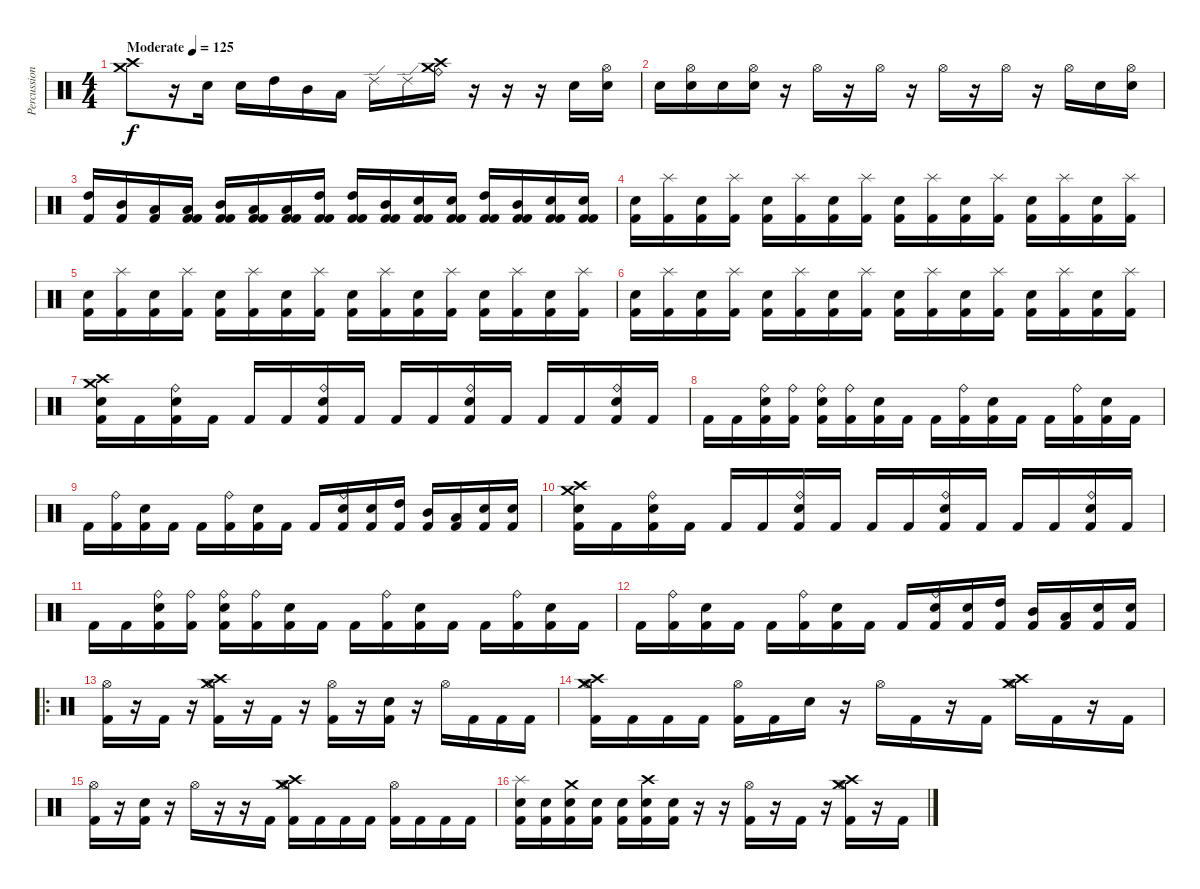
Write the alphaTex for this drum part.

\track ("Percussion" "Percussion") {instrument percussion}
\staff {score}
\articulation defaults
\ts (4 4)
\tempo (125 "Moderate")
\clef neutral
\ks c
("Crash medium (hit)" "Crash high (hit)").8{dy f} r.16 "Electric Snare (hit)".16 "Electric Snare (hit)".16 "High Tom (hit)".16 "Mid Tom (hit)".16 "Low Tom (hit)".16 "Ride (edge) 2".16 "Ride (edge) 2".16 ("Crash medium (hit)" "Crash high (hit)" "Ride (bell)").16 r.16 r.16 r.16 "Electric Snare (hit)".16 ("Hi-Hat (open)" "Electric Snare (hit)").16 |
"Electric Snare (hit)".16 ("Hi-Hat (open)" "Electric Snare (hit)").16 "Electric Snare (hit)".16 ("Hi-Hat (open)" "Electric Snare (hit)").16 r.16 "Hi-Hat (open)".16 r.16 "Hi-Hat (open)".16 r.16 "Hi-Hat (open)".16 r.16 "Hi-Hat (open)".16 r.16 "Hi-Hat (open)".16 "Electric Snare (hit)".16 ("Hi-Hat (open)" "Electric Snare (hit)").16 |
("High Tom (hit)" "Kick (hit) 2").16 ("Mid Tom (hit)" "Kick (hit) 2").16 ("Low Tom (hit)" "Kick (hit) 2").16 ("Low Tom (hit)" "Kick (hit) 2" "Kick (hit) 2").16 ("Mid Tom (hit)" "Kick (hit) 2" "Kick (hit) 2").16 ("Low Tom (hit)" "Kick (hit) 2" "Kick (hit) 2").16 ("Low Tom (hit)" "Kick (hit) 2" "Kick (hit) 2").16 ("High Tom (hit)" "Kick (hit) 2" "Kick (hit) 2").16 ("High Tom (hit)" "Kick (hit) 2" "Kick (hit) 2").16 ("Mid Tom (hit)" "Kick (hit) 2" "Kick (hit) 2").16 ("Electric Snare (hit)" "Kick (hit) 2" "Kick (hit) 2").16 ("Electric Snare (hit)" "Kick (hit) 2" "Kick (hit) 2").16 ("High Tom (hit)" "Kick (hit) 2" "Kick (hit) 2").16 ("Mid Tom (hit)" "Kick (hit) 2" "Kick (hit) 2").16 ("Electric Snare (hit)" "Kick (hit) 2" "Kick (hit) 2").16 ("Electric Snare (hit)" "Kick (hit) 2" "Kick (hit) 2").16 |
("Electric Snare (hit)" "Kick (hit) 2").16 ("Splash (hit)" "Kick (hit) 2").16 ("Electric Snare (hit)" "Kick (hit) 2").16 ("Splash (hit)" "Kick (hit) 2").16 ("Electric Snare (hit)" "Kick (hit) 2").16 ("Splash (hit)" "Kick (hit) 2").16 ("Electric Snare (hit)" "Kick (hit) 2").16 ("Splash (hit)" "Kick (hit) 2").16 ("Electric Snare (hit)" "Kick (hit) 2").16 ("Splash (hit)" "Kick (hit) 2").16 ("Electric Snare (hit)" "Kick (hit) 2").16 ("Splash (hit)" "Kick (hit) 2").16 ("Electric Snare (hit)" "Kick (hit) 2").16 ("Splash (hit)" "Kick (hit) 2").16 ("Electric Snare (hit)" "Kick (hit) 2").16 ("Splash (hit)" "Kick (hit) 2").16 |
("Electric Snare (hit)" "Kick (hit) 2").16 ("Splash (hit)" "Kick (hit) 2").16 ("Electric Snare (hit)" "Kick (hit) 2").16 ("Splash (hit)" "Kick (hit) 2").16 ("Electric Snare (hit)" "Kick (hit) 2").16 ("Splash (hit)" "Kick (hit) 2").16 ("Electric Snare (hit)" "Kick (hit) 2").16 ("Splash (hit)" "Kick (hit) 2").16 ("Electric Snare (hit)" "Kick (hit) 2").16 ("Splash (hit)" "Kick (hit) 2").16 ("Electric Snare (hit)" "Kick (hit) 2").16 ("Splash (hit)" "Kick (hit) 2").16 ("Electric Snare (hit)" "Kick (hit) 2").16 ("Splash (hit)" "Kick (hit) 2").16 ("Electric Snare (hit)" "Kick (hit) 2").16 ("Splash (hit)" "Kick (hit) 2").16 |
("Electric Snare (hit)" "Kick (hit) 2").16 ("Splash (hit)" "Kick (hit) 2").16 ("Electric Snare (hit)" "Kick (hit) 2").16 ("Splash (hit)" "Kick (hit) 2").16 ("Electric Snare (hit)" "Kick (hit) 2").16 ("Splash (hit)" "Kick (hit) 2").16 ("Electric Snare (hit)" "Kick (hit) 2").16 ("Splash (hit)" "Kick (hit) 2").16 ("Electric Snare (hit)" "Kick (hit) 2").16 ("Splash (hit)" "Kick (hit) 2").16 ("Electric Snare (hit)" "Kick (hit) 2").16 ("Splash (hit)" "Kick (hit) 2").16 ("Electric Snare (hit)" "Kick (hit) 2").16 ("Splash (hit)" "Kick (hit) 2").16 ("Electric Snare (hit)" "Kick (hit) 2").16 ("Splash (hit)" "Kick (hit) 2").16 |
("Crash high (hit)" "Crash medium (hit)" "Electric Snare (hit)" "Kick (hit) 2").16 "Kick (hit) 2".16 ("Ride (bell)" "Electric Snare (hit)" "Kick (hit) 2").16 "Kick (hit) 2".16 "Kick (hit) 2".16 "Kick (hit) 2".16 ("Ride (bell)" "Electric Snare (hit)" "Kick (hit) 2").16 "Kick (hit) 2".16 "Kick (hit) 2".16 "Kick (hit) 2".16 ("Ride (bell)" "Electric Snare (hit)" "Kick (hit) 2").16 "Kick (hit) 2".16 "Kick (hit) 2".16 "Kick (hit) 2".16 ("Ride (bell)" "Electric Snare (hit)" "Kick (hit) 2").16 "Kick (hit) 2".16 |
"Kick (hit) 2".16 "Kick (hit) 2".16 ("Ride (bell)" "Electric Snare (hit)" "Kick (hit) 2").16 ("Ride (bell)" "Kick (hit) 2").16 ("Ride (bell)" "Electric Snare (hit)" "Kick (hit) 2").16 ("Ride (bell)" "Kick (hit) 2").16 ("Electric Snare (hit)" "Kick (hit) 2").16 "Kick (hit) 2".16 "Kick (hit) 2".16 ("Ride (bell)" "Kick (hit) 2").16 ("Electric Snare (hit)" "Kick (hit) 2").16 "Kick (hit) 2".16 "Kick (hit) 2".16 ("Ride (bell)" "Kick (hit) 2").16 ("Electric Snare (hit)" "Kick (hit) 2").16 "Kick (hit) 2".16 |
"Kick (hit) 2".16 ("Ride (bell)" "Kick (hit) 2").16 ("Electric Snare (hit)" "Kick (hit) 2").16 "Kick (hit) 2".16 "Kick (hit) 2".16 ("Ride (bell)" "Kick (hit) 2").16 ("Electric Snare (hit)" "Kick (hit) 2").16 "Kick (hit) 2".16 "Kick (hit) 2".16 ("Ride (bell)" "Electric Snare (hit)" "Kick (hit) 2").16 ("Electric Snare (hit)" "Kick (hit) 2").16 ("High Tom (hit)" "Kick (hit) 2").16 ("Mid Tom (hit)" "Kick (hit) 2").16 ("Low Tom (hit)" "Kick (hit) 2").16 ("Electric Snare (hit)" "Kick (hit) 2").16 ("Electric Snare (hit)" "Kick (hit) 2").16 |
("Crash high (hit)" "Crash medium (hit)" "Electric Snare (hit)" "Kick (hit) 2").16 "Kick (hit) 2".16 ("Ride (bell)" "Electric Snare (hit)" "Kick (hit) 2").16 "Kick (hit) 2".16 "Kick (hit) 2".16 "Kick (hit) 2".16 ("Ride (bell)" "Electric Snare (hit)" "Kick (hit) 2").16 "Kick (hit) 2".16 "Kick (hit) 2".16 "Kick (hit) 2".16 ("Ride (bell)" "Electric Snare (hit)" "Kick (hit) 2").16 "Kick (hit) 2".16 "Kick (hit) 2".16 "Kick (hit) 2".16 ("Ride (bell)" "Electric Snare (hit)" "Kick (hit) 2").16 "Kick (hit) 2".16 |
"Kick (hit) 2".16 "Kick (hit) 2".16 ("Ride (bell)" "Electric Snare (hit)" "Kick (hit) 2").16 ("Ride (bell)" "Kick (hit) 2").16 ("Ride (bell)" "Electric Snare (hit)" "Kick (hit) 2").16 ("Ride (bell)" "Kick (hit) 2").16 ("Electric Snare (hit)" "Kick (hit) 2").16 "Kick (hit) 2".16 "Kick (hit) 2".16 ("Ride (bell)" "Kick (hit) 2").16 ("Electric Snare (hit)" "Kick (hit) 2").16 "Kick (hit) 2".16 "Kick (hit) 2".16 ("Ride (bell)" "Kick (hit) 2").16 ("Electric Snare (hit)" "Kick (hit) 2").16 "Kick (hit) 2".16 |
"Kick (hit) 2".16 ("Ride (bell)" "Kick (hit) 2").16 ("Electric Snare (hit)" "Kick (hit) 2").16 "Kick (hit) 2".16 "Kick (hit) 2".16 ("Ride (bell)" "Kick (hit) 2").16 ("Electric Snare (hit)" "Kick (hit) 2").16 "Kick (hit) 2".16 "Kick (hit) 2".16 ("Ride (bell)" "Electric Snare (hit)" "Kick (hit) 2").16 ("Electric Snare (hit)" "Kick (hit) 2").16 ("High Tom (hit)" "Kick (hit) 2").16 ("Mid Tom (hit)" "Kick (hit) 2").16 ("Low Tom (hit)" "Kick (hit) 2").16 ("Electric Snare (hit)" "Kick (hit) 2").16 ("Electric Snare (hit)" "Kick (hit) 2").16 |
\ro
("Hi-Hat (open)" "Kick (hit) 2").16 r.16 "Kick (hit) 2".16 r.16 ("Crash medium (hit)" "Hi-Hat (open)" "Crash high (hit)" "Kick (hit) 2").16 r.16 "Kick (hit) 2".16 r.16 ("Hi-Hat (open)" "Kick (hit) 2").16 r.16 ("Electric Snare (hit)" "Kick (hit) 2").16 r.16 "Hi-Hat (open)".16 "Kick (hit) 2".16 "Kick (hit) 2".16 "Kick (hit) 2".16 |
("Crash medium (hit)" "Hi-Hat (open)" "Crash high (hit)" "Kick (hit) 2").16 "Kick (hit) 2".16 "Kick (hit) 2".16 "Kick (hit) 2".16 ("Hi-Hat (open)" "Kick (hit) 2").16 "Kick (hit) 2".16 "Electric Snare (hit)".16 r.16 "Hi-Hat (open)".16 "Kick (hit) 2".16 r.16 "Kick (hit) 2".16 ("Crash medium (hit)" "Hi-Hat (open)" "Crash high (hit)").16 "Kick (hit) 2".16 r.16 "Kick (hit) 2".16 |
("Hi-Hat (open)" "Kick (hit) 2").16 r.16 ("Electric Snare (hit)" "Kick (hit) 2").16 r.16 "Hi-Hat (open)".16 r.16 r.16 "Kick (hit) 2".16 ("Crash medium (hit)" "Hi-Hat (open)" "Crash high (hit)" "Kick (hit) 2").16 "Kick (hit) 2".16 "Kick (hit) 2".16 "Kick (hit) 2".16 ("Hi-Hat (open)" "Kick (hit) 2").16 "Kick (hit) 2".16 "Kick (hit) 2".16 "Kick (hit) 2".16 |
("Splash (hit)" "Electric Snare (hit)" "Kick (hit) 2").16 ("Electric Snare (hit)" "Kick (hit) 2").16 ("Crash medium (hit)" "Electric Snare (hit)" "Kick (hit) 2").16 ("Electric Snare (hit)" "Kick (hit) 2").16 ("Electric Snare (hit)" "Kick (hit) 2").16 ("Crash high (hit)" "Electric Snare (hit)" "Kick (hit) 2").16 ("Electric Snare (hit)" "Kick (hit) 2").16 r.16 r.16 ("Hi-Hat (open)" "Kick (hit) 2").16 r.16 "Kick (hit) 2".16 r.16 ("Crash medium (hit)" "Hi-Hat (open)" "Crash high (hit)" "Kick (hit) 2").16 r.16 "Kick (hit) 2".16
